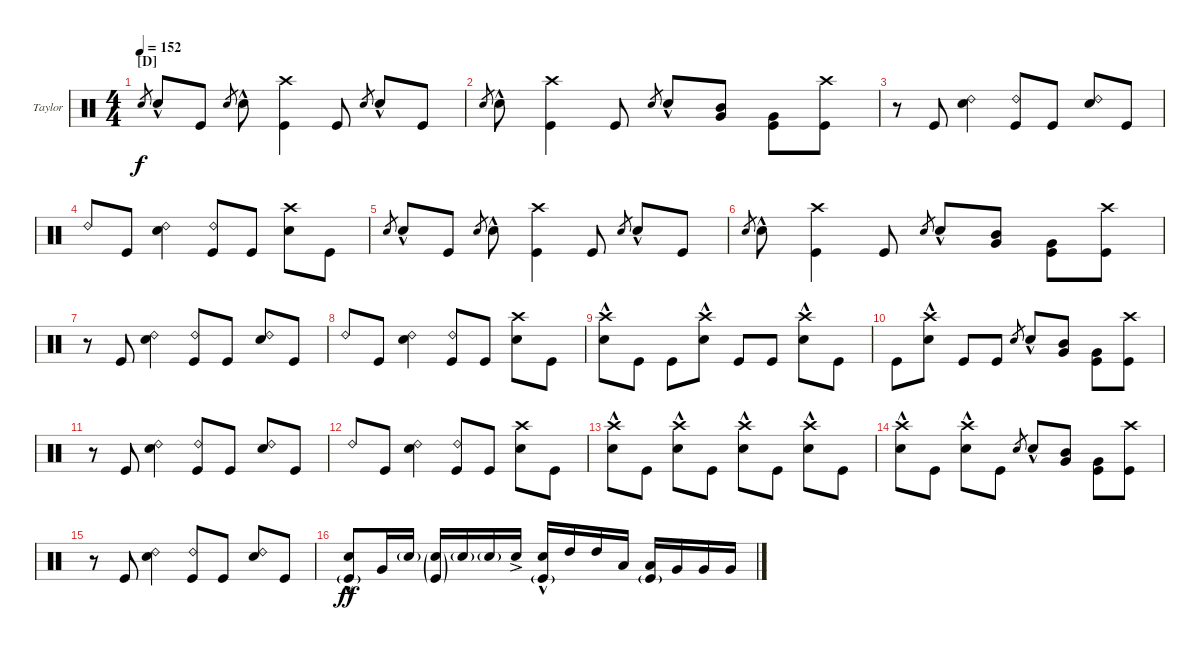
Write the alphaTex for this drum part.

\defaultSystemsLayout 4
\bracketExtendMode nobrackets
\firstSystemTrackNameOrientation horizontal
\otherSystemsTrackNameOrientation horizontal
\track ("Drums (Taylor Hawkins)" "Taylor") {instrument percussion}
\staff {score}
\articulation defaults
\ts (4 4)
\section ("D" "")
\tempo 152
\clef neutral
\ks c "Snare (hit) 2".8{gr dy f} "Snare (hit) 2"{hac}.8 "Kick (hit)".8 "Snare (hit) 2".8{gr} "Snare (hit) 2"{hac}.8
("Kick (hit)" "Crash high (hit)").4 "Kick (hit)".8 "Snare (hit) 2".8{gr} "Snare (hit) 2"{hac}.8 "Kick (hit)".8 |
"Snare (hit) 2".8{gr} "Snare (hit) 2"{hac}.8 ("Crash high (hit)" "Kick (hit)").4 "Kick (hit)".8 "Snare (hit) 2".8{gr} "Snare (hit) 2"{hac}.8 ("Mid Tom (hit)" "Very Low Tom (hit)").8 ("Very Low Tom (hit)" "Kick (hit)").8 ("Crash high (hit)" "Kick (hit)").8 |
r.8 "Kick (hit)".8 ("Snare (hit) 2" "Ride (bell) 2").4 ("Ride (bell) 2" "Kick (hit)").8 "Kick (hit)".8 ("Snare (hit) 2" "Ride (bell) 2").8 "Kick (hit)".8 |
"Ride (bell) 2".8 "Kick (hit)".8 ("Snare (hit) 2" "Ride (bell) 2").4 ("Kick (hit)" "Ride (bell) 2").8 "Kick (hit)".8 ("Snare (hit) 2" "Crash high (hit)").8 "Kick (hit)".8 |
"Snare (hit) 2".8{gr} "Snare (hit) 2"{hac}.8 "Kick (hit)".8 "Snare (hit) 2".8{gr} "Snare (hit) 2"{hac}.8 ("Kick (hit)" "Crash high (hit)").4 "Kick (hit)".8 "Snare (hit) 2".8{gr} "Snare (hit) 2"{hac}.8 "Kick (hit)".8 |
"Snare (hit) 2".8{gr} "Snare (hit) 2"{hac}.8 ("Crash high (hit)" "Kick (hit)").4 "Kick (hit)".8 "Snare (hit) 2".8{gr} "Snare (hit) 2"{hac}.8 ("Mid Tom (hit)" "Very Low Tom (hit)").8 ("Very Low Tom (hit)" "Kick (hit)").8 ("Crash high (hit)" "Kick (hit)").8 |
r.8 "Kick (hit)".8 ("Snare (hit) 2" "Ride (bell) 2").4 ("Ride (bell) 2" "Kick (hit)").8 "Kick (hit)".8 ("Snare (hit) 2" "Ride (bell) 2").8 "Kick (hit)".8 |
"Ride (bell) 2".8 "Kick (hit)".8 ("Snare (hit) 2" "Ride (bell) 2").4 ("Kick (hit)" "Ride (bell) 2").8 "Kick (hit)".8 ("Snare (hit) 2" "Crash high (hit)").8 "Kick (hit)".8 |
("Snare (hit) 2"{hac} "Crash high (hit)").8 "Kick (hit)".8 "Kick (hit)".8 ("Crash high (hit)" "Snare (hit) 2"{hac}).8 "Kick (hit)".8 "Kick (hit)".8 ("Snare (hit) 2"{hac} "Crash high (hit)").8 "Kick (hit)".8 |
"Kick (hit)".8 ("Crash high (hit)" "Snare (hit) 2"{hac}).8 "Kick (hit)".8 "Kick (hit)".8 "Snare (hit) 2".8{gr} "Snare (hit) 2"{hac}.8 ("Mid Tom (hit)" "Very Low Tom (hit)").8 ("Very Low Tom (hit)" "Kick (hit)").8 ("Crash high (hit)" "Kick (hit)").8 |
r.8 "Kick (hit)".8 ("Snare (hit) 2" "Ride (bell) 2").4 ("Ride (bell) 2" "Kick (hit)").8 "Kick (hit)".8 ("Snare (hit) 2" "Ride (bell) 2").8 "Kick (hit)".8 |
"Ride (bell) 2".8 "Kick (hit)".8 ("Snare (hit) 2" "Ride (bell) 2").4 ("Kick (hit)" "Ride (bell) 2").8 "Kick (hit)".8 ("Snare (hit) 2" "Crash high (hit)").8 "Kick (hit)".8 |
("Snare (hit) 2"{hac} "Crash high (hit)").8 "Kick (hit)".8 ("Snare (hit) 2"{hac} "Crash high (hit)").8 "Kick (hit)".8 ("Snare (hit) 2"{hac} "Crash high (hit)").8 "Kick (hit)".8 ("Snare (hit) 2"{hac} "Crash high (hit)").8 "Kick (hit)".8 |
("Snare (hit) 2"{hac} "Crash high (hit)").8 "Kick (hit)".8 ("Snare (hit) 2"{hac} "Crash high (hit)").8 "Kick (hit)".8 "Snare (hit) 2".8{gr} "Snare (hit) 2"{hac}.8 ("Mid Tom (hit)" "Very Low Tom (hit)").8 ("Very Low Tom (hit)" "Kick (hit)").8 ("Crash high (hit)" "Kick (hit)").8 |
r.8 "Kick (hit)".8 ("Snare (hit) 2" "Ride (bell) 2").4 ("Ride (bell) 2" "Kick (hit)").8 "Kick (hit)".8 ("Snare (hit) 2" "Ride (bell) 2").8 "Kick (hit)".8 |
("Snare (hit) 2"{hac} "Kick (hit)"{g}).8{dy ff} "Very Low Tom (hit)".16 "Snare (hit) 2"{g}.16 ("Snare (hit) 2"{g} "Kick (hit)"{g}).16 "Snare (hit) 2"{g}.16 "Snare (hit) 2"{g}.16 "Snare (hit) 2"{ac}.16 ("Snare (hit) 2"{hac} "Kick (hit)"{g}).16 "High Tom (hit)".16 "High Tom (hit)".16 "Low Tom (hit)".16 ("Low Tom (hit)" "Kick (hit)"{g}).16 "Very Low Tom (hit)".16 "Very Low Tom (hit)".16 "Very Low Tom (hit)".16
